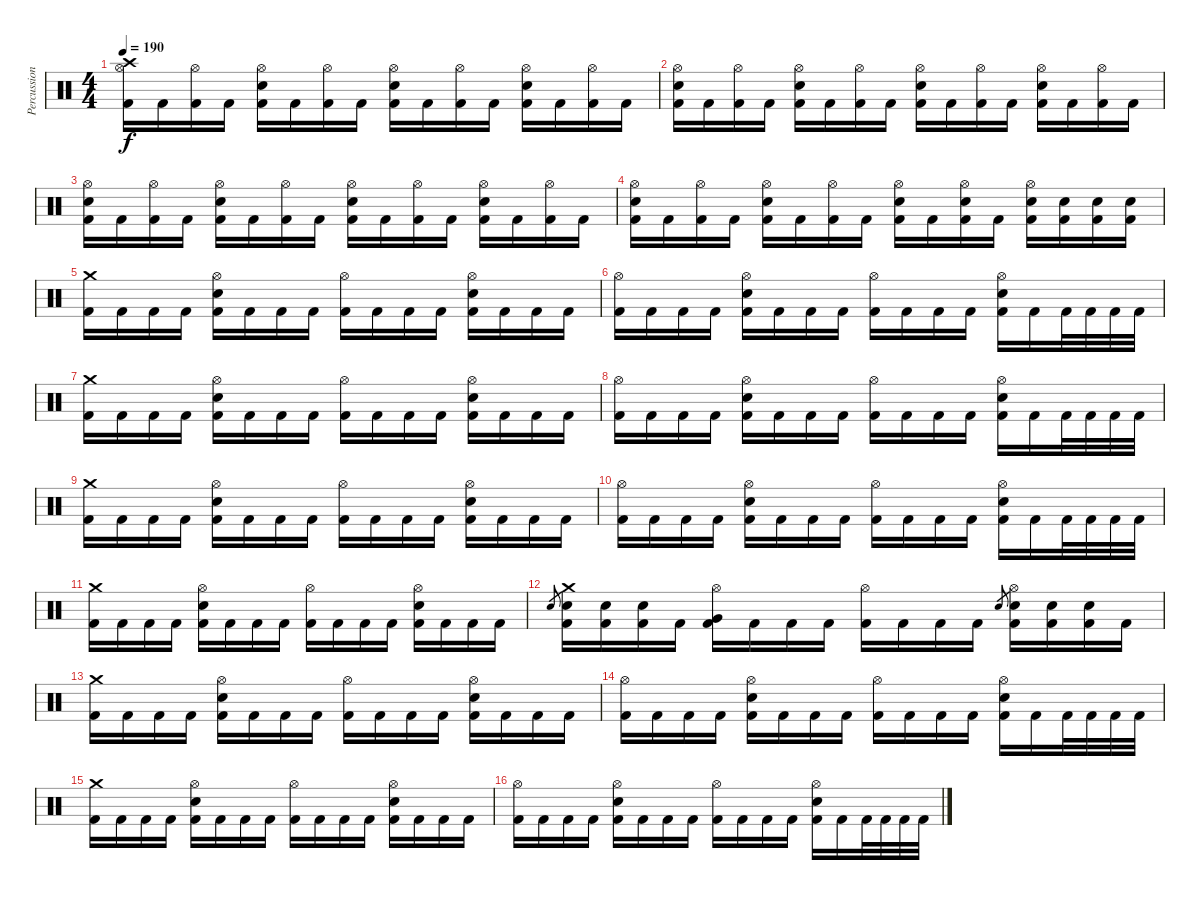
\track ("Percussions" "Percussion") {instrument percussion}
\staff {score}
\articulation defaults
\ts (4 4)
\tempo 190
\clef neutral
\ks c
("Hi-Hat (open)" "Crash high (hit)" "Kick (hit) 2").16{dy f} "Kick (hit) 2".16 ("Hi-Hat (open)" "Kick (hit) 2").16 "Kick (hit) 2".16 ("Hi-Hat (open)" "Electric Snare (hit)" "Kick (hit) 2").16 "Kick (hit) 2".16 ("Hi-Hat (open)" "Kick (hit) 2").16 "Kick (hit) 2".16 ("Hi-Hat (open)" "Electric Snare (hit)" "Kick (hit) 2").16 "Kick (hit) 2".16 ("Hi-Hat (open)" "Kick (hit) 2").16 "Kick (hit) 2".16 ("Hi-Hat (open)" "Electric Snare (hit)" "Kick (hit) 2").16 "Kick (hit) 2".16 ("Hi-Hat (open)" "Kick (hit) 2").16 "Kick (hit) 2".16 |
("Hi-Hat (open)" "Electric Snare (hit)" "Kick (hit) 2").16 "Kick (hit) 2".16 ("Hi-Hat (open)" "Kick (hit) 2").16 "Kick (hit) 2".16 ("Hi-Hat (open)" "Electric Snare (hit)" "Kick (hit) 2").16 "Kick (hit) 2".16 ("Hi-Hat (open)" "Kick (hit) 2").16 "Kick (hit) 2".16 ("Hi-Hat (open)" "Electric Snare (hit)" "Kick (hit) 2").16 "Kick (hit) 2".16 ("Hi-Hat (open)" "Kick (hit) 2").16 "Kick (hit) 2".16 ("Hi-Hat (open)" "Electric Snare (hit)" "Kick (hit) 2").16 "Kick (hit) 2".16 ("Hi-Hat (open)" "Kick (hit) 2").16 "Kick (hit) 2".16 |
("Hi-Hat (open)" "Electric Snare (hit)" "Kick (hit) 2").16 "Kick (hit) 2".16 ("Hi-Hat (open)" "Kick (hit) 2").16 "Kick (hit) 2".16 ("Hi-Hat (open)" "Electric Snare (hit)" "Kick (hit) 2").16 "Kick (hit) 2".16 ("Hi-Hat (open)" "Kick (hit) 2").16 "Kick (hit) 2".16 ("Hi-Hat (open)" "Electric Snare (hit)" "Kick (hit) 2").16 "Kick (hit) 2".16 ("Hi-Hat (open)" "Kick (hit) 2").16 "Kick (hit) 2".16 ("Hi-Hat (open)" "Electric Snare (hit)" "Kick (hit) 2").16 "Kick (hit) 2".16 ("Hi-Hat (open)" "Kick (hit) 2").16 "Kick (hit) 2".16 |
("Hi-Hat (open)" "Electric Snare (hit)" "Kick (hit) 2").16 "Kick (hit) 2".16 ("Hi-Hat (open)" "Kick (hit) 2").16 "Kick (hit) 2".16 ("Hi-Hat (open)" "Electric Snare (hit)" "Kick (hit) 2").16 "Kick (hit) 2".16 ("Hi-Hat (open)" "Kick (hit) 2").16 "Kick (hit) 2".16 ("Hi-Hat (open)" "Electric Snare (hit)" "Kick (hit) 2").16 "Kick (hit) 2".16 ("Hi-Hat (open)" "Electric Snare (hit)" "Kick (hit) 2").16 "Kick (hit) 2".16 ("Hi-Hat (open)" "Electric Snare (hit)" "Kick (hit) 2").16 ("Electric Snare (hit)" "Kick (hit) 2").16 ("Electric Snare (hit)" "Kick (hit) 2").16 ("Electric Snare (hit)" "Kick (hit) 2").16 |
("Crash medium (hit)" "Kick (hit) 2").16 "Kick (hit) 2".16 "Kick (hit) 2".16 "Kick (hit) 2".16 ("Hi-Hat (open)" "Electric Snare (hit)" "Kick (hit) 2").16 "Kick (hit) 2".16 "Kick (hit) 2".16 "Kick (hit) 2".16 ("Hi-Hat (open)" "Kick (hit) 2").16 "Kick (hit) 2".16 "Kick (hit) 2".16 "Kick (hit) 2".16 ("Hi-Hat (open)" "Electric Snare (hit)" "Kick (hit) 2").16 "Kick (hit) 2".16 "Kick (hit) 2".16 "Kick (hit) 2".16 |
("Hi-Hat (open)" "Kick (hit) 2").16 "Kick (hit) 2".16 "Kick (hit) 2".16 "Kick (hit) 2".16 ("Hi-Hat (open)" "Electric Snare (hit)" "Kick (hit) 2").16 "Kick (hit) 2".16 "Kick (hit) 2".16 "Kick (hit) 2".16 ("Hi-Hat (open)" "Kick (hit) 2").16 "Kick (hit) 2".16 "Kick (hit) 2".16 "Kick (hit) 2".16 ("Hi-Hat (open)" "Electric Snare (hit)" "Kick (hit) 2").16 "Kick (hit) 2".16 "Kick (hit) 2".32 "Kick (hit) 2".32 "Kick (hit) 2".32 "Kick (hit) 2".32 |
("Crash medium (hit)" "Kick (hit) 2").16 "Kick (hit) 2".16 "Kick (hit) 2".16 "Kick (hit) 2".16 ("Hi-Hat (open)" "Electric Snare (hit)" "Kick (hit) 2").16 "Kick (hit) 2".16 "Kick (hit) 2".16 "Kick (hit) 2".16 ("Hi-Hat (open)" "Kick (hit) 2").16 "Kick (hit) 2".16 "Kick (hit) 2".16 "Kick (hit) 2".16 ("Hi-Hat (open)" "Electric Snare (hit)" "Kick (hit) 2").16 "Kick (hit) 2".16 "Kick (hit) 2".16 "Kick (hit) 2".16 |
("Hi-Hat (open)" "Kick (hit) 2").16 "Kick (hit) 2".16 "Kick (hit) 2".16 "Kick (hit) 2".16 ("Hi-Hat (open)" "Electric Snare (hit)" "Kick (hit) 2").16 "Kick (hit) 2".16 "Kick (hit) 2".16 "Kick (hit) 2".16 ("Hi-Hat (open)" "Kick (hit) 2").16 "Kick (hit) 2".16 "Kick (hit) 2".16 "Kick (hit) 2".16 ("Hi-Hat (open)" "Electric Snare (hit)" "Kick (hit) 2").16 "Kick (hit) 2".16 "Kick (hit) 2".32 "Kick (hit) 2".32 "Kick (hit) 2".32 "Kick (hit) 2".32 |
("Crash medium (hit)" "Kick (hit) 2").16 "Kick (hit) 2".16 "Kick (hit) 2".16 "Kick (hit) 2".16 ("Hi-Hat (open)" "Electric Snare (hit)" "Kick (hit) 2").16 "Kick (hit) 2".16 "Kick (hit) 2".16 "Kick (hit) 2".16 ("Hi-Hat (open)" "Kick (hit) 2").16 "Kick (hit) 2".16 "Kick (hit) 2".16 "Kick (hit) 2".16 ("Hi-Hat (open)" "Electric Snare (hit)" "Kick (hit) 2").16 "Kick (hit) 2".16 "Kick (hit) 2".16 "Kick (hit) 2".16 |
("Hi-Hat (open)" "Kick (hit) 2").16 "Kick (hit) 2".16 "Kick (hit) 2".16 "Kick (hit) 2".16 ("Hi-Hat (open)" "Electric Snare (hit)" "Kick (hit) 2").16 "Kick (hit) 2".16 "Kick (hit) 2".16 "Kick (hit) 2".16 ("Hi-Hat (open)" "Kick (hit) 2").16 "Kick (hit) 2".16 "Kick (hit) 2".16 "Kick (hit) 2".16 ("Hi-Hat (open)" "Electric Snare (hit)" "Kick (hit) 2").16 "Kick (hit) 2".16 "Kick (hit) 2".32 "Kick (hit) 2".32 "Kick (hit) 2".32 "Kick (hit) 2".32 |
("Crash medium (hit)" "Kick (hit) 2").16 "Kick (hit) 2".16 "Kick (hit) 2".16 "Kick (hit) 2".16 ("Hi-Hat (open)" "Electric Snare (hit)" "Kick (hit) 2").16 "Kick (hit) 2".16 "Kick (hit) 2".16 "Kick (hit) 2".16 ("Hi-Hat (open)" "Kick (hit) 2").16 "Kick (hit) 2".16 "Kick (hit) 2".16 "Kick (hit) 2".16 ("Hi-Hat (open)" "Electric Snare (hit)" "Kick (hit) 2").16 "Kick (hit) 2".16 "Kick (hit) 2".16 "Kick (hit) 2".16 |
"Electric Snare (hit)".8{gr} ("Crash medium (hit)" "Electric Snare (hit)" "Kick (hit) 2").16 ("Electric Snare (hit)" "Kick (hit) 2").16 ("Electric Snare (hit)" "Kick (hit) 2").16 "Kick (hit) 2".16 ("Hi-Hat (open)" "Very Low Tom (hit)" "Kick (hit) 2").16 "Kick (hit) 2".16 "Kick (hit) 2".16 "Kick (hit) 2".16 ("Hi-Hat (open)" "Kick (hit) 2").16 "Kick (hit) 2".16 "Kick (hit) 2".16 "Kick (hit) 2".16 "Electric Snare (hit)".8{gr} ("Hi-Hat (open)" "Electric Snare (hit)" "Kick (hit) 2").16 ("Electric Snare (hit)" "Kick (hit) 2").16 ("Electric Snare (hit)" "Kick (hit) 2").16 "Kick (hit) 2".16 |
("Crash medium (hit)" "Kick (hit) 2").16 "Kick (hit) 2".16 "Kick (hit) 2".16 "Kick (hit) 2".16 ("Hi-Hat (open)" "Electric Snare (hit)" "Kick (hit) 2").16 "Kick (hit) 2".16 "Kick (hit) 2".16 "Kick (hit) 2".16 ("Hi-Hat (open)" "Kick (hit) 2").16 "Kick (hit) 2".16 "Kick (hit) 2".16 "Kick (hit) 2".16 ("Hi-Hat (open)" "Electric Snare (hit)" "Kick (hit) 2").16 "Kick (hit) 2".16 "Kick (hit) 2".16 "Kick (hit) 2".16 |
("Hi-Hat (open)" "Kick (hit) 2").16 "Kick (hit) 2".16 "Kick (hit) 2".16 "Kick (hit) 2".16 ("Hi-Hat (open)" "Electric Snare (hit)" "Kick (hit) 2").16 "Kick (hit) 2".16 "Kick (hit) 2".16 "Kick (hit) 2".16 ("Hi-Hat (open)" "Kick (hit) 2").16 "Kick (hit) 2".16 "Kick (hit) 2".16 "Kick (hit) 2".16 ("Hi-Hat (open)" "Electric Snare (hit)" "Kick (hit) 2").16 "Kick (hit) 2".16 "Kick (hit) 2".32 "Kick (hit) 2".32 "Kick (hit) 2".32 "Kick (hit) 2".32 |
("Crash medium (hit)" "Kick (hit) 2").16 "Kick (hit) 2".16 "Kick (hit) 2".16 "Kick (hit) 2".16 ("Hi-Hat (open)" "Electric Snare (hit)" "Kick (hit) 2").16 "Kick (hit) 2".16 "Kick (hit) 2".16 "Kick (hit) 2".16 ("Hi-Hat (open)" "Kick (hit) 2").16 "Kick (hit) 2".16 "Kick (hit) 2".16 "Kick (hit) 2".16 ("Hi-Hat (open)" "Electric Snare (hit)" "Kick (hit) 2").16 "Kick (hit) 2".16 "Kick (hit) 2".16 "Kick (hit) 2".16 |
("Hi-Hat (open)" "Kick (hit) 2").16 "Kick (hit) 2".16 "Kick (hit) 2".16 "Kick (hit) 2".16 ("Hi-Hat (open)" "Electric Snare (hit)" "Kick (hit) 2").16 "Kick (hit) 2".16 "Kick (hit) 2".16 "Kick (hit) 2".16 ("Hi-Hat (open)" "Kick (hit) 2").16 "Kick (hit) 2".16 "Kick (hit) 2".16 "Kick (hit) 2".16 ("Hi-Hat (open)" "Electric Snare (hit)" "Kick (hit) 2").16 "Kick (hit) 2".16 "Kick (hit) 2".32 "Kick (hit) 2".32 "Kick (hit) 2".32 "Kick (hit) 2".32
